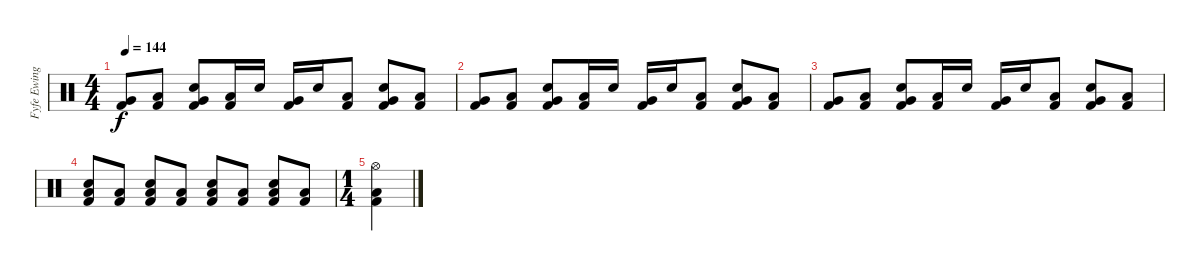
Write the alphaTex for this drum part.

\track ("Fyfe Ewing" "Fyfe Ewing") {instrument percussion}
\staff {score}
\articulation defaults
\ts (4 4)
\tempo 144
\clef neutral
\ks c
("Very Low Tom (hit)" "Kick (hit) 2").8{dy f} ("Low Floor Tom (hit)" "Kick (hit) 2").8 ("Very Low Tom (hit)" "Snare (hit) 2" "Kick (hit) 2").8 ("Low Floor Tom (hit)" "Kick (hit) 2").16 "Snare (hit) 2".16 ("Very Low Tom (hit)" "Kick (hit) 2").16 "Snare (hit) 2".16 ("Low Floor Tom (hit)" "Kick (hit) 2").8 ("Very Low Tom (hit)" "Snare (hit) 2" "Kick (hit) 2").8 ("Low Floor Tom (hit)" "Kick (hit) 2").8 |
("Very Low Tom (hit)" "Kick (hit) 2").8 ("Low Floor Tom (hit)" "Kick (hit) 2").8 ("Very Low Tom (hit)" "Snare (hit) 2" "Kick (hit) 2").8 ("Low Floor Tom (hit)" "Kick (hit) 2").16 "Snare (hit) 2".16 ("Very Low Tom (hit)" "Kick (hit) 2").16 "Snare (hit) 2".16 ("Low Floor Tom (hit)" "Kick (hit) 2").8 ("Very Low Tom (hit)" "Snare (hit) 2" "Kick (hit) 2").8 ("Low Floor Tom (hit)" "Kick (hit) 2").8 |
("Very Low Tom (hit)" "Kick (hit) 2").8 ("Low Floor Tom (hit)" "Kick (hit) 2").8 ("Very Low Tom (hit)" "Snare (hit) 2" "Kick (hit) 2").8 ("Low Floor Tom (hit)" "Kick (hit) 2").16 "Snare (hit) 2".16 ("Very Low Tom (hit)" "Kick (hit) 2").16 "Snare (hit) 2".16 ("Low Floor Tom (hit)" "Kick (hit) 2").8 ("Very Low Tom (hit)" "Snare (hit) 2" "Kick (hit) 2").8 ("Low Floor Tom (hit)" "Kick (hit) 2").8 |
("Low Floor Tom (hit)" "Snare (hit) 2" "Kick (hit) 2").8 ("Low Floor Tom (hit)" "Kick (hit) 2").8 ("Low Floor Tom (hit)" "Snare (hit) 2" "Kick (hit) 2").8 ("Low Floor Tom (hit)" "Kick (hit) 2").8 ("Low Floor Tom (hit)" "Snare (hit) 2" "Kick (hit) 2").8 ("Low Floor Tom (hit)" "Kick (hit) 2").8 ("Low Floor Tom (hit)" "Snare (hit) 2" "Kick (hit) 2").8 ("Low Floor Tom (hit)" "Kick (hit) 2").8 |
\ts (1 4)
("Low Floor Tom (hit)" "Hi-Hat (open)" "Kick (hit) 2").4
